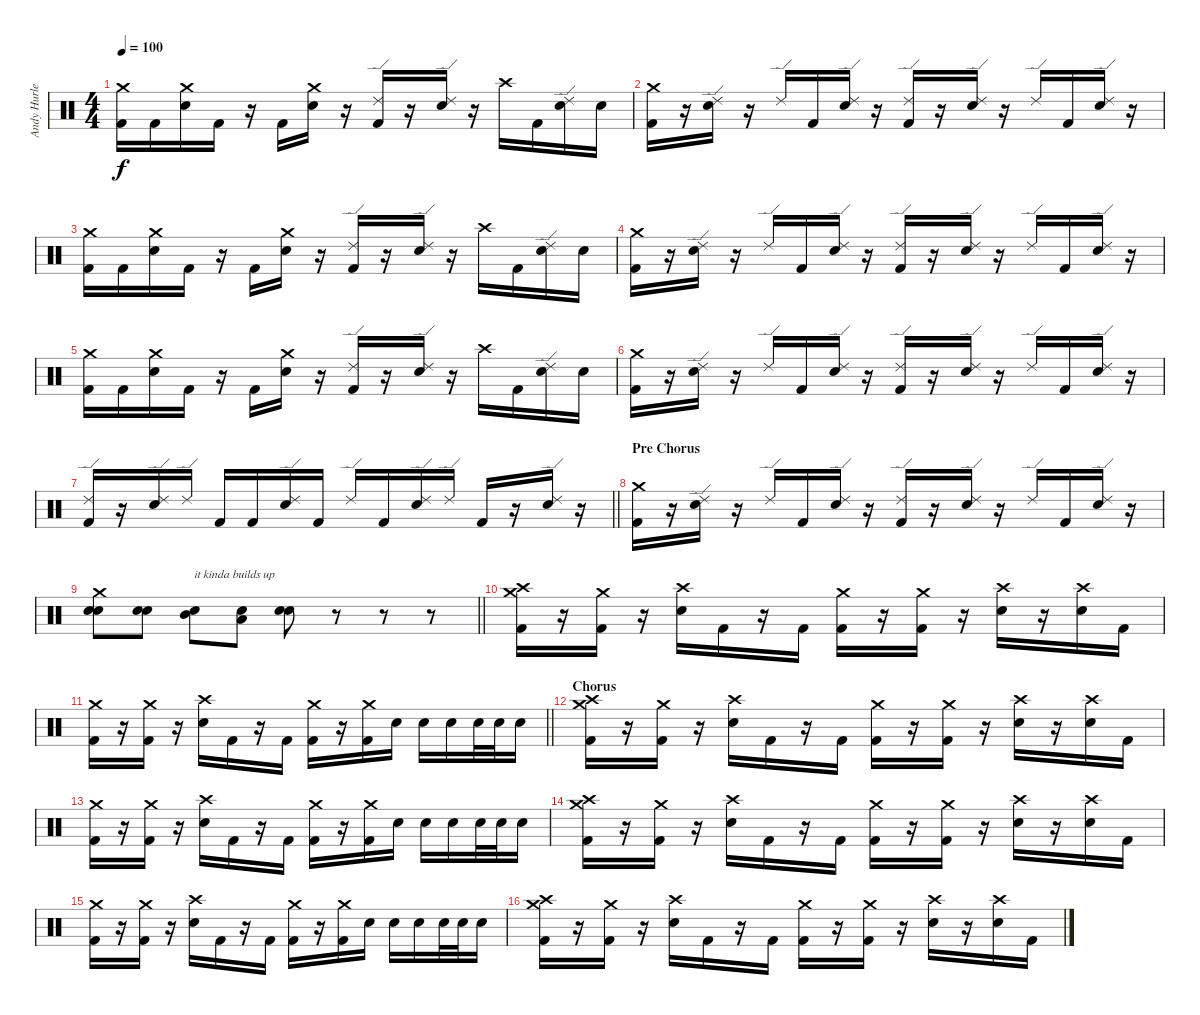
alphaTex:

\track ("Andy Hurley" "Andy Hurle") {instrument percussion}
\staff {score}
\articulation defaults
\ts (4 4)
\tempo 100
\clef neutral
\ks c
("Crash medium (hit)" "Kick (hit) 2").16{dy f} "Kick (hit) 2".16 ("Crash medium (hit)" "Electric Snare (hit)").16 "Kick (hit) 2".16 r.16 "Kick (hit) 2".16 ("Crash medium (hit)" "Electric Snare (hit)").16 r.16 ("Ride (edge) 2" "Kick (hit) 2").16 r.16 ("Ride (edge) 2" "Electric Snare (hit)").16 r.16 "Crash high (hit)".16 "Kick (hit) 2".16 ("Ride (edge) 2" "Electric Snare (hit)").16 "Electric Snare (hit)".16 |
("Crash medium (hit)" "Kick (hit) 2").16 r.16 ("Ride (edge) 2" "Electric Snare (hit)").16 r.16 "Ride (edge) 2".16 "Kick (hit) 2".16 ("Ride (edge) 2" "Electric Snare (hit)").16 r.16 ("Ride (edge) 2" "Kick (hit) 2").16 r.16 ("Ride (edge) 2" "Electric Snare (hit)").16 r.16 "Ride (edge) 2".16 "Kick (hit) 2".16 ("Ride (edge) 2" "Electric Snare (hit)").16 r.16 |
("Crash medium (hit)" "Kick (hit) 2").16 "Kick (hit) 2".16 ("Crash medium (hit)" "Electric Snare (hit)").16 "Kick (hit) 2".16 r.16 "Kick (hit) 2".16 ("Crash medium (hit)" "Electric Snare (hit)").16 r.16 ("Ride (edge) 2" "Kick (hit) 2").16 r.16 ("Ride (edge) 2" "Electric Snare (hit)").16 r.16 "Crash high (hit)".16 "Kick (hit) 2".16 ("Ride (edge) 2" "Electric Snare (hit)").16 "Electric Snare (hit)".16 |
("Crash medium (hit)" "Kick (hit) 2").16 r.16 ("Ride (edge) 2" "Electric Snare (hit)").16 r.16 "Ride (edge) 2".16 "Kick (hit) 2".16 ("Ride (edge) 2" "Electric Snare (hit)").16 r.16 ("Ride (edge) 2" "Kick (hit) 2").16 r.16 ("Ride (edge) 2" "Electric Snare (hit)").16 r.16 "Ride (edge) 2".16 "Kick (hit) 2".16 ("Ride (edge) 2" "Electric Snare (hit)").16 r.16 |
("Crash medium (hit)" "Kick (hit) 2").16 "Kick (hit) 2".16 ("Crash medium (hit)" "Electric Snare (hit)").16 "Kick (hit) 2".16 r.16 "Kick (hit) 2".16 ("Crash medium (hit)" "Electric Snare (hit)").16 r.16 ("Ride (edge) 2" "Kick (hit) 2").16 r.16 ("Ride (edge) 2" "Electric Snare (hit)").16 r.16 "Crash high (hit)".16 "Kick (hit) 2".16 ("Ride (edge) 2" "Electric Snare (hit)").16 "Electric Snare (hit)".16 |
("Crash medium (hit)" "Kick (hit) 2").16 r.16 ("Ride (edge) 2" "Electric Snare (hit)").16 r.16 "Ride (edge) 2".16 "Kick (hit) 2".16 ("Ride (edge) 2" "Electric Snare (hit)").16 r.16 ("Ride (edge) 2" "Kick (hit) 2").16 r.16 ("Ride (edge) 2" "Electric Snare (hit)").16 r.16 "Ride (edge) 2".16 "Kick (hit) 2".16 ("Ride (edge) 2" "Electric Snare (hit)").16 r.16 |
\barLineRight lightlight
("Ride (edge) 2" "Kick (hit) 2").16 r.16 ("Ride (edge) 2" "Electric Snare (hit)").16 "Ride (edge) 2".16 "Kick (hit) 2".16 "Kick (hit) 2".16 ("Ride (edge) 2" "Electric Snare (hit)").16 "Kick (hit) 2".16 "Ride (edge) 2".16 "Kick (hit) 2".16 ("Ride (edge) 2" "Electric Snare (hit)").16 "Ride (edge) 2".16 "Kick (hit) 2".16 r.16 ("Ride (edge) 2" "Electric Snare (hit)").16 r.16 |
\section ("" "Pre Chorus")
("Crash medium (hit)" "Kick (hit) 2").16 r.16 ("Ride (edge) 2" "Electric Snare (hit)").16 r.16 "Ride (edge) 2".16 "Kick (hit) 2".16 ("Ride (edge) 2" "Electric Snare (hit)").16 r.16 ("Ride (edge) 2" "Kick (hit) 2").16 r.16 ("Ride (edge) 2" "Electric Snare (hit)").16 r.16 "Ride (edge) 2".16 "Kick (hit) 2".16 ("Ride (edge) 2" "Electric Snare (hit)").16 r.16 |
\barLineRight lightlight
("Crash medium (hit)" "Electric Snare (hit)" "Snare (hit) 2").8 ("Electric Snare (hit)" "Snare (hit) 2").8 ("Mid Tom (hit)" "Snare (hit) 2").8{txt "it kinda builds up"} ("Low Tom (hit)" "Snare (hit) 2").8 ("Electric Snare (hit)" "Snare (hit) 2").8 r.8 r.8 r.8 |
("Crash high (hit)" "Crash medium (hit)" "Kick (hit) 2").16 r.16 ("Crash medium (hit)" "Kick (hit) 2").16 r.16 ("Crash high (hit)" "Electric Snare (hit)").16 "Kick (hit) 2".16 r.16 "Kick (hit) 2".16 ("Crash medium (hit)" "Kick (hit) 2").16 r.16 ("Crash medium (hit)" "Kick (hit) 2").16 r.16 ("Crash high (hit)" "Electric Snare (hit)").16 r.16 ("Crash high (hit)" "Electric Snare (hit)").16 "Kick (hit) 2".16 |
\barLineRight lightlight
("Crash medium (hit)" "Kick (hit) 2").16 r.16 ("Crash medium (hit)" "Kick (hit) 2").16 r.16 ("Crash high (hit)" "Electric Snare (hit)").16 "Kick (hit) 2".16 r.16 "Kick (hit) 2".16 ("Crash medium (hit)" "Kick (hit) 2").16 r.16 ("Crash medium (hit)" "Kick (hit) 2").16 "Electric Snare (hit)".16 "Electric Snare (hit)".16 "Electric Snare (hit)".16 "Electric Snare (hit)".32 "Electric Snare (hit)".32 "Electric Snare (hit)".16 |
\section ("" "Chorus")
("Crash high (hit)" "Crash medium (hit)" "Kick (hit) 2").16 r.16 ("Crash medium (hit)" "Kick (hit) 2").16 r.16 ("Crash high (hit)" "Electric Snare (hit)").16 "Kick (hit) 2".16 r.16 "Kick (hit) 2".16 ("Crash medium (hit)" "Kick (hit) 2").16 r.16 ("Crash medium (hit)" "Kick (hit) 2").16 r.16 ("Crash high (hit)" "Electric Snare (hit)").16 r.16 ("Crash high (hit)" "Electric Snare (hit)").16 "Kick (hit) 2".16 |
("Crash medium (hit)" "Kick (hit) 2").16 r.16 ("Crash medium (hit)" "Kick (hit) 2").16 r.16 ("Crash high (hit)" "Electric Snare (hit)").16 "Kick (hit) 2".16 r.16 "Kick (hit) 2".16 ("Crash medium (hit)" "Kick (hit) 2").16 r.16 ("Crash medium (hit)" "Kick (hit) 2").16 "Electric Snare (hit)".16 "Electric Snare (hit)".16 "Electric Snare (hit)".16 "Electric Snare (hit)".32 "Electric Snare (hit)".32 "Electric Snare (hit)".16 |
("Crash high (hit)" "Crash medium (hit)" "Kick (hit) 2").16 r.16 ("Crash medium (hit)" "Kick (hit) 2").16 r.16 ("Crash high (hit)" "Electric Snare (hit)").16 "Kick (hit) 2".16 r.16 "Kick (hit) 2".16 ("Crash medium (hit)" "Kick (hit) 2").16 r.16 ("Crash medium (hit)" "Kick (hit) 2").16 r.16 ("Crash high (hit)" "Electric Snare (hit)").16 r.16 ("Crash high (hit)" "Electric Snare (hit)").16 "Kick (hit) 2".16 |
("Crash medium (hit)" "Kick (hit) 2").16 r.16 ("Crash medium (hit)" "Kick (hit) 2").16 r.16 ("Crash high (hit)" "Electric Snare (hit)").16 "Kick (hit) 2".16 r.16 "Kick (hit) 2".16 ("Crash medium (hit)" "Kick (hit) 2").16 r.16 ("Crash medium (hit)" "Kick (hit) 2").16 "Electric Snare (hit)".16 "Electric Snare (hit)".16 "Electric Snare (hit)".16 "Electric Snare (hit)".32 "Electric Snare (hit)".32 "Electric Snare (hit)".16 |
("Crash high (hit)" "Crash medium (hit)" "Kick (hit) 2").16 r.16 ("Crash medium (hit)" "Kick (hit) 2").16 r.16 ("Crash high (hit)" "Electric Snare (hit)").16 "Kick (hit) 2".16 r.16 "Kick (hit) 2".16 ("Crash medium (hit)" "Kick (hit) 2").16 r.16 ("Crash medium (hit)" "Kick (hit) 2").16 r.16 ("Crash high (hit)" "Electric Snare (hit)").16 r.16 ("Crash high (hit)" "Electric Snare (hit)").16 "Kick (hit) 2".16
